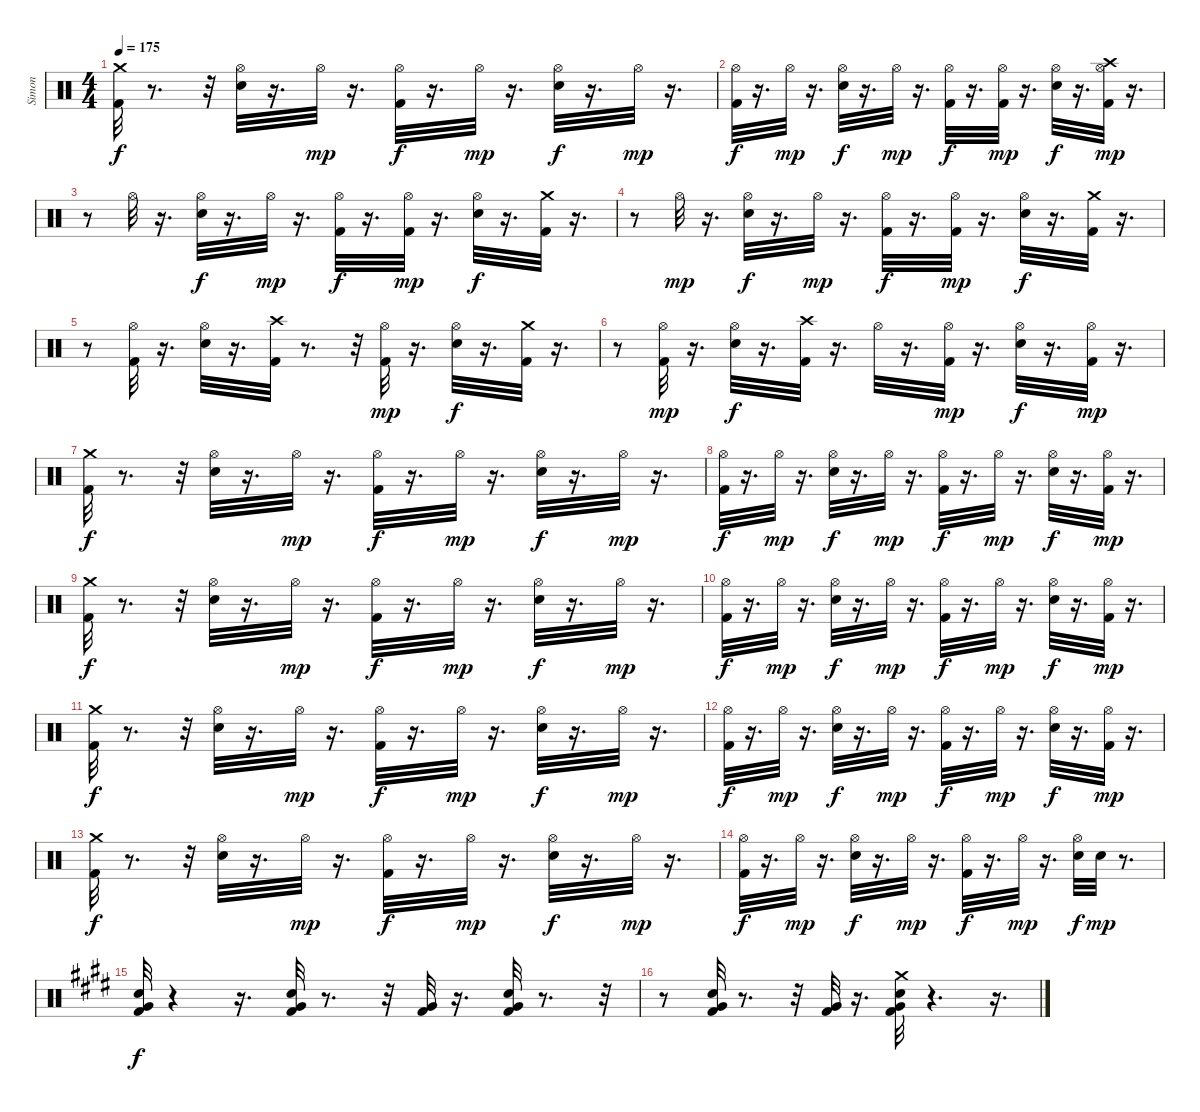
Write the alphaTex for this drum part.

\track ("Simon" "Simon") {instrument percussion}
\staff {score}
\articulation defaults
\ts (4 4)
\tempo 175
\clef neutral
\ks c
("Crash medium (hit)" "Kick (hit) 2").32{dy f} r.8{d} r.32 ("Hi-Hat (open)" "Electric Snare (hit)").32 r.16{d} "Hi-Hat (open)".32{dy mp} r.16{d} ("Hi-Hat (open)" "Kick (hit) 2").32{dy f} r.16{d} "Hi-Hat (open)".32{dy mp} r.16{d} ("Hi-Hat (open)" "Electric Snare (hit)").32{dy f} r.16{d} "Hi-Hat (open)".32{dy mp} r.16{d} |
("Hi-Hat (open)" "Kick (hit) 2").32{dy f} r.16{d} "Hi-Hat (open)".32{dy mp} r.16{d} ("Hi-Hat (open)" "Electric Snare (hit)").32{dy f} r.16{d} "Hi-Hat (open)".32{dy mp} r.16{d} ("Hi-Hat (open)" "Kick (hit) 2").32{dy f} r.16{d} ("Kick (hit) 2" "Hi-Hat (open)").32{dy mp} r.16{d} ("Hi-Hat (open)" "Electric Snare (hit)").32{dy f} r.16{d} ("Hi-Hat (open)" "Crash high (hit)" "Kick (hit) 2").32{dy mp} r.16{d} |
r.8 "Hi-Hat (open)".32 r.16{d} ("Hi-Hat (open)" "Electric Snare (hit)").32{dy f} r.16{d} "Hi-Hat (open)".32{dy mp} r.16{d} ("Hi-Hat (open)" "Kick (hit) 2").32{dy f} r.16{d} ("Hi-Hat (open)" "Kick (hit) 2").32{dy mp} r.16{d} ("Hi-Hat (open)" "Electric Snare (hit)").32{dy f} r.16{d} ("Crash medium (hit)" "Kick (hit) 2").32 r.16{d} |
r.8 "Hi-Hat (open)".32{dy mp} r.16{d} ("Hi-Hat (open)" "Electric Snare (hit)").32{dy f} r.16{d} "Hi-Hat (open)".32{dy mp} r.16{d} ("Hi-Hat (open)" "Kick (hit) 2").32{dy f} r.16{d} ("Hi-Hat (open)" "Kick (hit) 2").32{dy mp} r.16{d} ("Hi-Hat (open)" "Electric Snare (hit)").32{dy f} r.16{d} ("Crash medium (hit)" "Kick (hit) 2").32 r.16{d} |
r.8 ("Hi-Hat (open)" "Kick (hit) 2").32 r.16{d} ("Hi-Hat (open)" "Electric Snare (hit)").32 r.16{d} ("Crash high (hit)" "Kick (hit) 2").32 r.8{d} r.32 ("Hi-Hat (open)" "Kick (hit) 2").32{dy mp} r.16{d} ("Hi-Hat (open)" "Electric Snare (hit)").32{dy f} r.16{d} ("Crash medium (hit)" "Kick (hit) 2").32 r.16{d} |
r.8 ("Hi-Hat (open)" "Kick (hit) 2").32{dy mp} r.16{d} ("Hi-Hat (open)" "Electric Snare (hit)").32{dy f} r.16{d} ("Crash high (hit)" "Kick (hit) 2").32 r.16{d} "Hi-Hat (open)".32 r.16{d} ("Hi-Hat (open)" "Kick (hit) 2").32{dy mp} r.16{d} ("Hi-Hat (open)" "Electric Snare (hit)").32{dy f} r.16{d} ("Hi-Hat (open)" "Kick (hit) 2").32{dy mp} r.16{d} |
("Crash medium (hit)" "Kick (hit) 2").32{dy f} r.8{d} r.32 ("Hi-Hat (open)" "Electric Snare (hit)").32 r.16{d} "Hi-Hat (open)".32{dy mp} r.16{d} ("Hi-Hat (open)" "Kick (hit) 2").32{dy f} r.16{d} "Hi-Hat (open)".32{dy mp} r.16{d} ("Hi-Hat (open)" "Electric Snare (hit)").32{dy f} r.16{d} "Hi-Hat (open)".32{dy mp} r.16{d} |
("Hi-Hat (open)" "Kick (hit) 2").32{dy f} r.16{d} "Hi-Hat (open)".32{dy mp} r.16{d} ("Hi-Hat (open)" "Electric Snare (hit)").32{dy f} r.16{d} "Hi-Hat (open)".32{dy mp} r.16{d} ("Hi-Hat (open)" "Kick (hit) 2").32{dy f} r.16{d} "Hi-Hat (open)".32{dy mp} r.16{d} ("Hi-Hat (open)" "Electric Snare (hit)").32{dy f} r.16{d} ("Kick (hit) 2" "Hi-Hat (open)").32{dy mp} r.16{d} |
("Crash medium (hit)" "Kick (hit) 2").32{dy f} r.8{d} r.32 ("Hi-Hat (open)" "Electric Snare (hit)").32 r.16{d} "Hi-Hat (open)".32{dy mp} r.16{d} ("Hi-Hat (open)" "Kick (hit) 2").32{dy f} r.16{d} "Hi-Hat (open)".32{dy mp} r.16{d} ("Hi-Hat (open)" "Electric Snare (hit)").32{dy f} r.16{d} "Hi-Hat (open)".32{dy mp} r.16{d} |
("Hi-Hat (open)" "Kick (hit) 2").32{dy f} r.16{d} "Hi-Hat (open)".32{dy mp} r.16{d} ("Hi-Hat (open)" "Electric Snare (hit)").32{dy f} r.16{d} "Hi-Hat (open)".32{dy mp} r.16{d} ("Hi-Hat (open)" "Kick (hit) 2").32{dy f} r.16{d} "Hi-Hat (open)".32{dy mp} r.16{d} ("Hi-Hat (open)" "Electric Snare (hit)").32{dy f} r.16{d} ("Kick (hit) 2" "Hi-Hat (open)").32{dy mp} r.16{d} |
("Crash medium (hit)" "Kick (hit) 2").32{dy f} r.8{d} r.32 ("Hi-Hat (open)" "Electric Snare (hit)").32 r.16{d} "Hi-Hat (open)".32{dy mp} r.16{d} ("Hi-Hat (open)" "Kick (hit) 2").32{dy f} r.16{d} "Hi-Hat (open)".32{dy mp} r.16{d} ("Hi-Hat (open)" "Electric Snare (hit)").32{dy f} r.16{d} "Hi-Hat (open)".32{dy mp} r.16{d} |
("Hi-Hat (open)" "Kick (hit) 2").32{dy f} r.16{d} "Hi-Hat (open)".32{dy mp} r.16{d} ("Hi-Hat (open)" "Electric Snare (hit)").32{dy f} r.16{d} "Hi-Hat (open)".32{dy mp} r.16{d} ("Hi-Hat (open)" "Kick (hit) 2").32{dy f} r.16{d} "Hi-Hat (open)".32{dy mp} r.16{d} ("Hi-Hat (open)" "Electric Snare (hit)").32{dy f} r.16{d} ("Kick (hit) 2" "Hi-Hat (open)").32{dy mp} r.16{d} |
("Crash medium (hit)" "Kick (hit) 2").32{dy f} r.8{d} r.32 ("Hi-Hat (open)" "Electric Snare (hit)").32 r.16{d} "Hi-Hat (open)".32{dy mp} r.16{d} ("Hi-Hat (open)" "Kick (hit) 2").32{dy f} r.16{d} "Hi-Hat (open)".32{dy mp} r.16{d} ("Hi-Hat (open)" "Electric Snare (hit)").32{dy f} r.16{d} "Hi-Hat (open)".32{dy mp} r.16{d} |
("Hi-Hat (open)" "Kick (hit) 2").32{dy f} r.16{d} "Hi-Hat (open)".32{dy mp} r.16{d} ("Hi-Hat (open)" "Electric Snare (hit)").32{dy f} r.16{d} "Hi-Hat (open)".32{dy mp} r.16{d} ("Hi-Hat (open)" "Kick (hit) 2").32{dy f} r.16{d} "Hi-Hat (open)".32{dy mp} r.16{d} ("Hi-Hat (open)" "Electric Snare (hit)").32{dy f} "Snare (hit) 2".32{dy mp} r.8{d} |
\ks e
("Very Low Tom (hit)" "Electric Snare (hit)" "Kick (hit) 2").32{dy f} r.4 r.16{d} ("Very Low Tom (hit)" "Kick (hit) 2" "Electric Snare (hit)").32 r.8{d} r.32 ("Very Low Tom (hit)" "Kick (hit) 2").32 r.16{d} ("Very Low Tom (hit)" "Kick (hit) 2" "Electric Snare (hit)").32 r.8{d} r.32 |
\ks c#minor
r.8 ("Kick (hit) 2" "Electric Snare (hit)" "Very Low Tom (hit)").32 r.8{d} r.32 ("Very Low Tom (hit)" "Kick (hit) 2").32 r.16{d} ("Crash medium (hit)" "Very Low Tom (hit)" "Electric Snare (hit)" "Kick (hit) 2").32 r.4{d} r.16{d}
